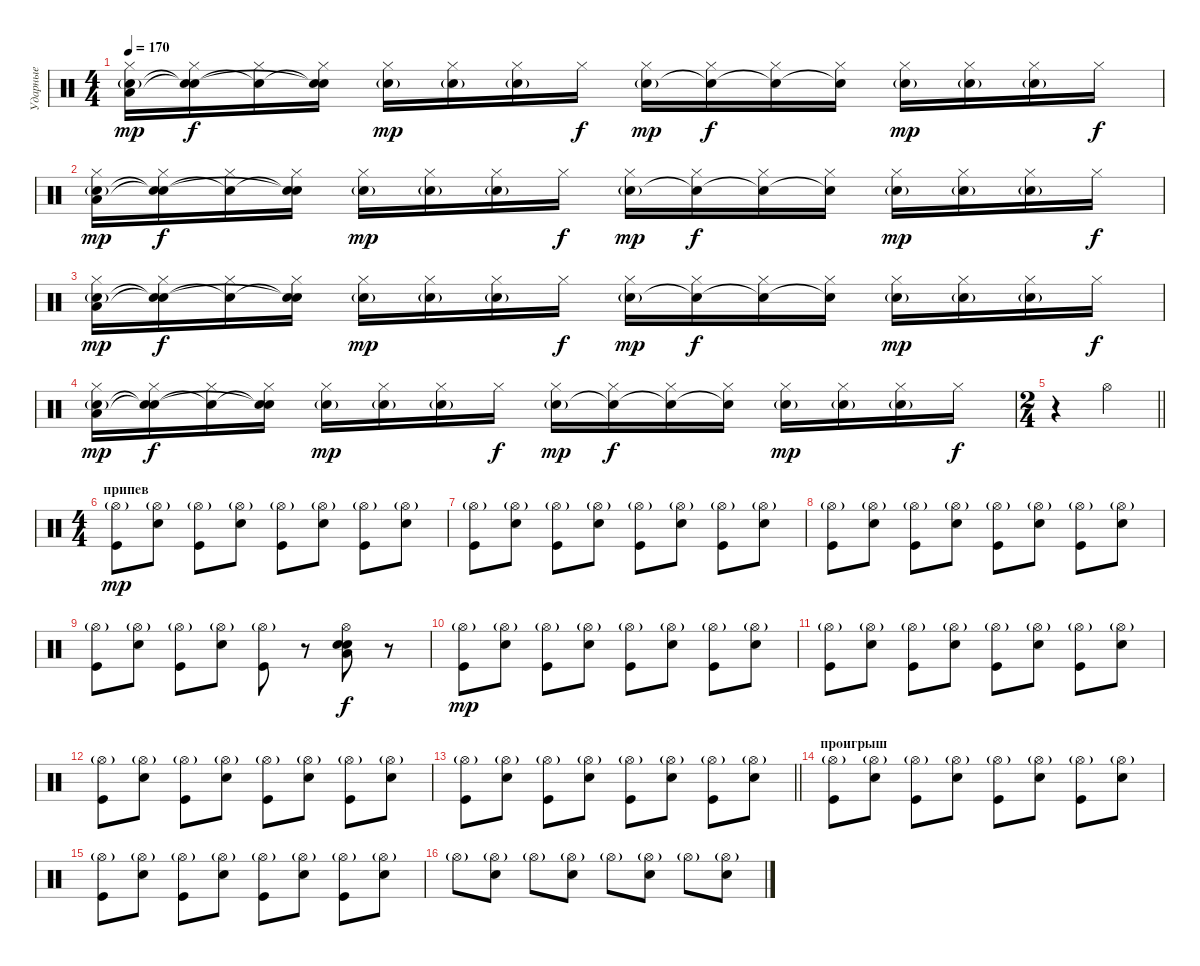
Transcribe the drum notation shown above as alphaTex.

\track ("Ударные" "Ударные") {instrument percussion}
\staff {score}
\articulation defaults
\ts (4 4)
\tempo 170
\clef neutral
\ks c
("Hi-Hat (closed)" "Low Tom (hit)" "Snare (hit) 2"{g}).16{dy mp} ("Hi-Hat (closed)" "Snare (hit)"{t} "Snare (hit)"{t}).16{dy f} ("Hi-Hat (closed)" "Snare (hit)"{t}).16 ("Hi-Hat (closed)" "Snare (hit) 2"{t} "Snare (hit)"{t}).16 ("Hi-Hat (closed)" "Snare (hit) 2"{g}).16{dy mp} ("Hi-Hat (closed)" "Snare (hit) 2"{g}).16 ("Hi-Hat (closed)" "Snare (hit) 2"{g}).16 "Hi-Hat (closed)".16{dy f} ("Hi-Hat (closed)" "Snare (hit) 2"{g}).16{dy mp} ("Hi-Hat (closed)" "Snare (hit) 2"{t}).16{dy f} ("Hi-Hat (closed)" "Snare (hit) 2"{t}).16 ("Hi-Hat (closed)" "Snare (hit) 2"{t}).16 ("Hi-Hat (closed)" "Snare (hit) 2"{g}).16{dy mp} ("Hi-Hat (closed)" "Snare (hit) 2"{g}).16 ("Hi-Hat (closed)" "Snare (hit) 2"{g}).16 "Hi-Hat (closed)".16{dy f} |
("Hi-Hat (closed)" "Low Tom (hit)" "Snare (hit) 2"{g}).16{dy mp} ("Hi-Hat (closed)" "Snare (hit)"{t} "Snare (hit)"{t}).16{dy f} ("Hi-Hat (closed)" "Snare (hit)"{t}).16 ("Hi-Hat (closed)" "Snare (hit) 2"{t} "Snare (hit)"{t}).16 ("Hi-Hat (closed)" "Snare (hit) 2"{g}).16{dy mp} ("Hi-Hat (closed)" "Snare (hit) 2"{g}).16 ("Hi-Hat (closed)" "Snare (hit) 2"{g}).16 "Hi-Hat (closed)".16{dy f} ("Hi-Hat (closed)" "Snare (hit) 2"{g}).16{dy mp} ("Hi-Hat (closed)" "Snare (hit) 2"{t}).16{dy f} ("Hi-Hat (closed)" "Snare (hit) 2"{t}).16 ("Hi-Hat (closed)" "Snare (hit) 2"{t}).16 ("Hi-Hat (closed)" "Snare (hit) 2"{g}).16{dy mp} ("Hi-Hat (closed)" "Snare (hit) 2"{g}).16 ("Hi-Hat (closed)" "Snare (hit) 2"{g}).16 "Hi-Hat (closed)".16{dy f} |
("Hi-Hat (closed)" "Low Tom (hit)" "Snare (hit) 2"{g}).16{dy mp} ("Hi-Hat (closed)" "Snare (hit)"{t} "Snare (hit)"{t}).16{dy f} ("Hi-Hat (closed)" "Snare (hit)"{t}).16 ("Hi-Hat (closed)" "Snare (hit) 2"{t} "Snare (hit)"{t}).16 ("Hi-Hat (closed)" "Snare (hit) 2"{g}).16{dy mp} ("Hi-Hat (closed)" "Snare (hit) 2"{g}).16 ("Hi-Hat (closed)" "Snare (hit) 2"{g}).16 "Hi-Hat (closed)".16{dy f} ("Hi-Hat (closed)" "Snare (hit) 2"{g}).16{dy mp} ("Hi-Hat (closed)" "Snare (hit) 2"{t}).16{dy f} ("Hi-Hat (closed)" "Snare (hit) 2"{t}).16 ("Hi-Hat (closed)" "Snare (hit) 2"{t}).16 ("Hi-Hat (closed)" "Snare (hit) 2"{g}).16{dy mp} ("Hi-Hat (closed)" "Snare (hit) 2"{g}).16 ("Hi-Hat (closed)" "Snare (hit) 2"{g}).16 "Hi-Hat (closed)".16{dy f} |
("Hi-Hat (closed)" "Low Tom (hit)" "Snare (hit) 2"{g}).16{dy mp} ("Hi-Hat (closed)" "Snare (hit)"{t} "Snare (hit)"{t}).16{dy f} ("Hi-Hat (closed)" "Snare (hit)"{t}).16 ("Hi-Hat (closed)" "Snare (hit) 2"{t} "Snare (hit)"{t}).16 ("Hi-Hat (closed)" "Snare (hit) 2"{g}).16{dy mp} ("Hi-Hat (closed)" "Snare (hit) 2"{g}).16 ("Hi-Hat (closed)" "Snare (hit) 2"{g}).16 "Hi-Hat (closed)".16{dy f} ("Hi-Hat (closed)" "Snare (hit) 2"{g}).16{dy mp} ("Hi-Hat (closed)" "Snare (hit) 2"{t}).16{dy f} ("Hi-Hat (closed)" "Snare (hit) 2"{t}).16 ("Hi-Hat (closed)" "Snare (hit) 2"{t}).16 ("Hi-Hat (closed)" "Snare (hit) 2"{g}).16{dy mp} ("Hi-Hat (closed)" "Snare (hit) 2"{g}).16 ("Hi-Hat (closed)" "Snare (hit) 2"{g}).16 "Hi-Hat (closed)".16{dy f} |
\ts (2 4)
\barLineRight lightlight
r.4 "Hi-Hat (open)".4 |
\ts (4 4)
\section ("" "припев")
("Hi-Hat (open)"{g} "Kick (hit)").8{dy mp} ("Hi-Hat (open)"{g} "Snare (hit) 2").8 ("Hi-Hat (open)"{g} "Kick (hit)").8 ("Hi-Hat (open)"{g} "Snare (hit) 2").8 ("Hi-Hat (open)"{g} "Kick (hit)").8 ("Hi-Hat (open)"{g} "Snare (hit) 2").8 ("Hi-Hat (open)"{g} "Kick (hit)").8 ("Hi-Hat (open)"{g} "Snare (hit) 2").8 |
("Hi-Hat (open)"{g} "Kick (hit)").8 ("Hi-Hat (open)"{g} "Snare (hit) 2").8 ("Hi-Hat (open)"{g} "Kick (hit)").8 ("Hi-Hat (open)"{g} "Snare (hit) 2").8 ("Hi-Hat (open)"{g} "Kick (hit)").8 ("Hi-Hat (open)"{g} "Snare (hit) 2").8 ("Hi-Hat (open)"{g} "Kick (hit)").8 ("Hi-Hat (open)"{g} "Snare (hit) 2").8 |
("Hi-Hat (open)"{g} "Kick (hit)").8 ("Hi-Hat (open)"{g} "Snare (hit) 2").8 ("Hi-Hat (open)"{g} "Kick (hit)").8 ("Hi-Hat (open)"{g} "Snare (hit) 2").8 ("Hi-Hat (open)"{g} "Kick (hit)").8 ("Hi-Hat (open)"{g} "Snare (hit) 2").8 ("Hi-Hat (open)"{g} "Kick (hit)").8 ("Hi-Hat (open)"{g} "Snare (hit) 2").8 |
("Hi-Hat (open)"{g} "Kick (hit)").8 ("Hi-Hat (open)"{g} "Snare (hit) 2").8 ("Hi-Hat (open)"{g} "Kick (hit)").8 ("Hi-Hat (open)"{g} "Snare (hit) 2").8 ("Hi-Hat (open)"{g} "Kick (hit)").8 r.8 ("Snare (hit) 2" "Snare (hit) 2" "Low Tom (hit)" "Hi-Hat (open)").8{dy f} r.8 |
("Hi-Hat (open)"{g} "Kick (hit)").8{dy mp} ("Hi-Hat (open)"{g} "Snare (hit) 2").8 ("Hi-Hat (open)"{g} "Kick (hit)").8 ("Hi-Hat (open)"{g} "Snare (hit) 2").8 ("Hi-Hat (open)"{g} "Kick (hit)").8 ("Hi-Hat (open)"{g} "Snare (hit) 2").8 ("Hi-Hat (open)"{g} "Kick (hit)").8 ("Hi-Hat (open)"{g} "Snare (hit) 2").8 |
("Hi-Hat (open)"{g} "Kick (hit)").8 ("Hi-Hat (open)"{g} "Snare (hit) 2").8 ("Hi-Hat (open)"{g} "Kick (hit)").8 ("Hi-Hat (open)"{g} "Snare (hit) 2").8 ("Hi-Hat (open)"{g} "Kick (hit)").8 ("Hi-Hat (open)"{g} "Snare (hit) 2").8 ("Hi-Hat (open)"{g} "Kick (hit)").8 ("Hi-Hat (open)"{g} "Snare (hit) 2").8 |
("Hi-Hat (open)"{g} "Kick (hit)").8 ("Hi-Hat (open)"{g} "Snare (hit) 2").8 ("Hi-Hat (open)"{g} "Kick (hit)").8 ("Hi-Hat (open)"{g} "Snare (hit) 2").8 ("Hi-Hat (open)"{g} "Kick (hit)").8 ("Hi-Hat (open)"{g} "Snare (hit) 2").8 ("Hi-Hat (open)"{g} "Kick (hit)").8 ("Hi-Hat (open)"{g} "Snare (hit) 2").8 |
\barLineRight lightlight
("Hi-Hat (open)"{g} "Kick (hit)").8 ("Hi-Hat (open)"{g} "Snare (hit) 2").8 ("Hi-Hat (open)"{g} "Kick (hit)").8 ("Hi-Hat (open)"{g} "Snare (hit) 2").8 ("Hi-Hat (open)"{g} "Kick (hit)").8 ("Hi-Hat (open)"{g} "Snare (hit) 2").8 ("Hi-Hat (open)"{g} "Kick (hit)").8 ("Hi-Hat (open)"{g} "Snare (hit) 2").8 |
\section ("" "проигрыш")
("Hi-Hat (open)"{g} "Kick (hit)").8 ("Hi-Hat (open)"{g} "Snare (hit) 2").8 ("Hi-Hat (open)"{g} "Kick (hit)").8 ("Hi-Hat (open)"{g} "Snare (hit) 2").8 ("Hi-Hat (open)"{g} "Kick (hit)").8 ("Hi-Hat (open)"{g} "Snare (hit) 2").8 ("Hi-Hat (open)"{g} "Kick (hit)").8 ("Hi-Hat (open)"{g} "Snare (hit) 2").8 |
("Hi-Hat (open)"{g} "Kick (hit)").8 ("Hi-Hat (open)"{g} "Snare (hit) 2").8 ("Hi-Hat (open)"{g} "Kick (hit)").8 ("Hi-Hat (open)"{g} "Snare (hit) 2").8 ("Hi-Hat (open)"{g} "Kick (hit)").8 ("Hi-Hat (open)"{g} "Snare (hit) 2").8 ("Hi-Hat (open)"{g} "Kick (hit)").8 ("Hi-Hat (open)"{g} "Snare (hit) 2").8 |
"Hi-Hat (open)"{g}.8 ("Hi-Hat (open)"{g} "Snare (hit) 2").8 "Hi-Hat (open)"{g}.8 ("Hi-Hat (open)"{g} "Snare (hit) 2").8 "Hi-Hat (open)"{g}.8 ("Hi-Hat (open)"{g} "Snare (hit) 2").8 "Hi-Hat (open)"{g}.8 ("Hi-Hat (open)"{g} "Snare (hit) 2").8
